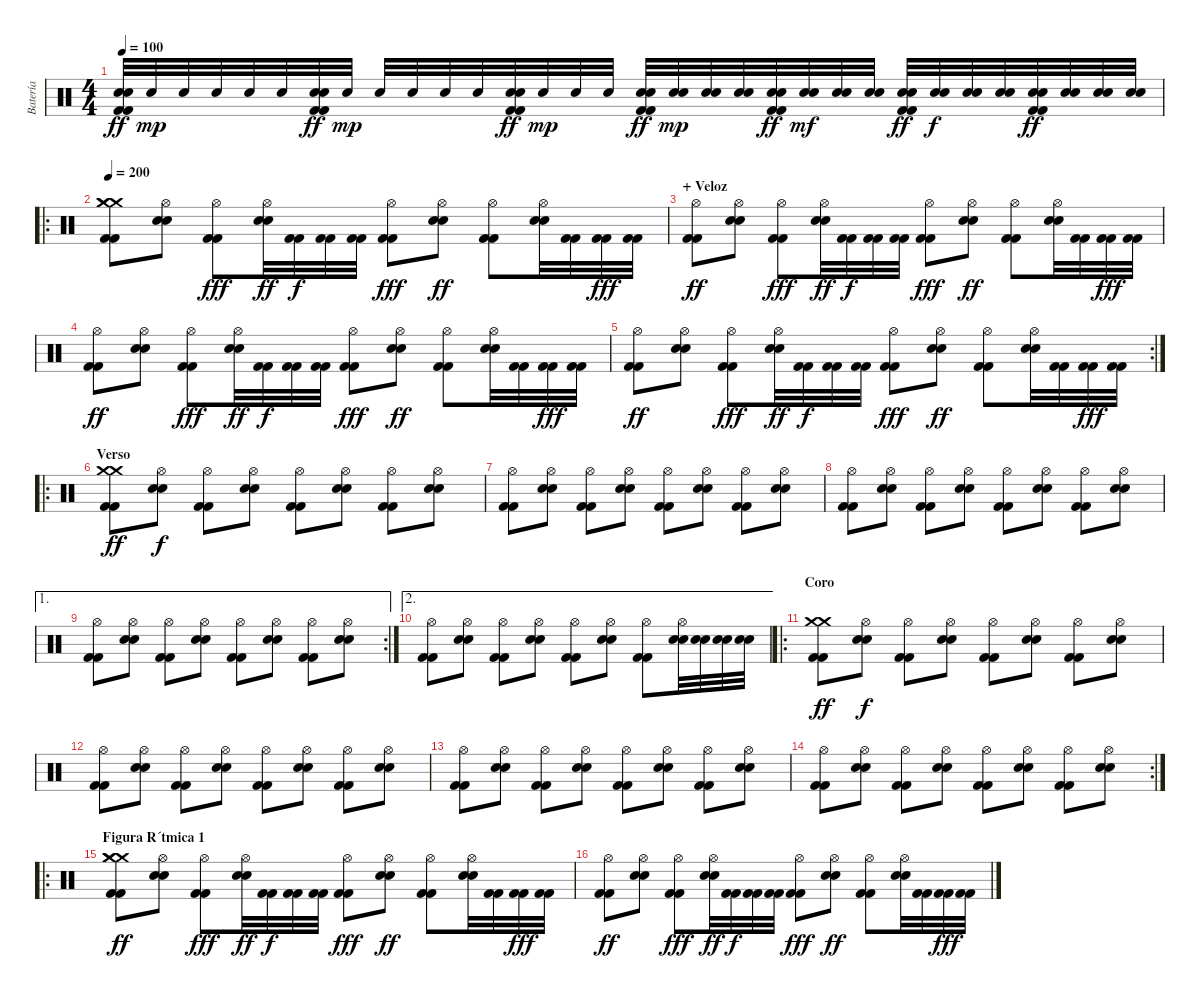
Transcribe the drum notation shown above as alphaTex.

\track ("Batería" "Batería") {instrument percussion}
\staff {score}
\articulation defaults
\ts (4 4)
\tempo 100
\clef neutral
\ks c
("Electric Snare (hit)" "Electric Snare (hit)" "Kick (hit) 2" "Kick (hit) 2").32{dy ff} "Electric Snare (hit)".32{dy mp} "Electric Snare (hit)".32 "Electric Snare (hit)".32 "Electric Snare (hit)".32 "Electric Snare (hit)".32 ("Electric Snare (hit)" "Electric Snare (hit)" "Kick (hit) 2" "Kick (hit) 2").32{dy ff} "Electric Snare (hit)".32{dy mp} "Electric Snare (hit)".32 "Electric Snare (hit)".32 "Electric Snare (hit)".32 "Electric Snare (hit)".32 ("Electric Snare (hit)" "Electric Snare (hit)" "Kick (hit) 2" "Kick (hit) 2").32{dy ff} "Electric Snare (hit)".32{dy mp} "Electric Snare (hit)".32 "Electric Snare (hit)".32 ("Electric Snare (hit)" "Electric Snare (hit)" "Kick (hit) 2" "Kick (hit) 2").32{dy ff} ("Electric Snare (hit)" "Electric Snare (hit)").32{dy mp} ("Electric Snare (hit)" "Electric Snare (hit)").32 ("Electric Snare (hit)" "Electric Snare (hit)").32 ("Electric Snare (hit)" "Electric Snare (hit)" "Kick (hit) 2" "Kick (hit) 2").32{dy ff} ("Electric Snare (hit)" "Electric Snare (hit)").32{dy mf} ("Electric Snare (hit)" "Electric Snare (hit)").32 ("Electric Snare (hit)" "Electric Snare (hit)").32 ("Electric Snare (hit)" "Electric Snare (hit)" "Kick (hit) 2" "Kick (hit) 2").32{dy ff} ("Electric Snare (hit)" "Electric Snare (hit)").32{dy f} ("Electric Snare (hit)" "Electric Snare (hit)").32 ("Electric Snare (hit)" "Electric Snare (hit)").32 ("Electric Snare (hit)" "Electric Snare (hit)" "Kick (hit) 2" "Kick (hit) 2").32{dy ff} ("Electric Snare (hit)" "Electric Snare (hit)").32 ("Electric Snare (hit)" "Electric Snare (hit)").32 ("Electric Snare (hit)" "Electric Snare (hit)").32 |
\ro
\tempo 200
("Crash medium (hit)" "Crash medium (hit)" "Crash medium (hit)" "Kick (hit) 2" "Kick (hit) 2").8 ("Hi-Hat (open)" "Electric Snare (hit)" "Electric Snare (hit)").8 ("Hi-Hat (open)" "Kick (hit) 2" "Kick (hit) 2").8{dy fff} ("Hi-Hat (open)" "Electric Snare (hit)" "Electric Snare (hit)").32{dy ff} ("Kick (hit) 2" "Kick (hit) 2").32{dy f} ("Kick (hit) 2" "Kick (hit) 2").32 ("Kick (hit) 2" "Kick (hit) 2").32 ("Hi-Hat (open)" "Kick (hit) 2" "Kick (hit) 2").8{dy fff} ("Hi-Hat (open)" "Electric Snare (hit)" "Electric Snare (hit)").8{dy ff} ("Hi-Hat (open)" "Kick (hit) 2" "Kick (hit) 2").8 ("Hi-Hat (open)" "Electric Snare (hit)" "Electric Snare (hit)").32 ("Kick (hit) 2" "Kick (hit) 2").32 ("Kick (hit) 2" "Kick (hit) 2").32{dy fff} ("Kick (hit) 2" "Kick (hit) 2").32 |
\section ("" "+ Veloz")
("Hi-Hat (open)" "Kick (hit) 2" "Kick (hit) 2").8{dy ff} ("Hi-Hat (open)" "Electric Snare (hit)" "Electric Snare (hit)").8 ("Hi-Hat (open)" "Kick (hit) 2" "Kick (hit) 2").8{dy fff} ("Hi-Hat (open)" "Electric Snare (hit)" "Electric Snare (hit)").32{dy ff} ("Kick (hit) 2" "Kick (hit) 2").32{dy f} ("Kick (hit) 2" "Kick (hit) 2").32 ("Kick (hit) 2" "Kick (hit) 2").32 ("Hi-Hat (open)" "Kick (hit) 2" "Kick (hit) 2").8{dy fff} ("Hi-Hat (open)" "Electric Snare (hit)" "Electric Snare (hit)").8{dy ff} ("Hi-Hat (open)" "Kick (hit) 2" "Kick (hit) 2").8 ("Hi-Hat (open)" "Electric Snare (hit)" "Electric Snare (hit)").32 ("Kick (hit) 2" "Kick (hit) 2").32 ("Kick (hit) 2" "Kick (hit) 2").32{dy fff} ("Kick (hit) 2" "Kick (hit) 2").32 |
("Hi-Hat (open)" "Kick (hit) 2" "Kick (hit) 2").8{dy ff} ("Hi-Hat (open)" "Electric Snare (hit)" "Electric Snare (hit)").8 ("Hi-Hat (open)" "Kick (hit) 2" "Kick (hit) 2").8{dy fff} ("Hi-Hat (open)" "Electric Snare (hit)" "Electric Snare (hit)").32{dy ff} ("Kick (hit) 2" "Kick (hit) 2").32{dy f} ("Kick (hit) 2" "Kick (hit) 2").32 ("Kick (hit) 2" "Kick (hit) 2").32 ("Hi-Hat (open)" "Kick (hit) 2" "Kick (hit) 2").8{dy fff} ("Hi-Hat (open)" "Electric Snare (hit)" "Electric Snare (hit)").8{dy ff} ("Hi-Hat (open)" "Kick (hit) 2" "Kick (hit) 2").8 ("Hi-Hat (open)" "Electric Snare (hit)" "Electric Snare (hit)").32 ("Kick (hit) 2" "Kick (hit) 2").32 ("Kick (hit) 2" "Kick (hit) 2").32{dy fff} ("Kick (hit) 2" "Kick (hit) 2").32 |
\rc 2
("Hi-Hat (open)" "Kick (hit) 2" "Kick (hit) 2").8{dy ff} ("Hi-Hat (open)" "Electric Snare (hit)" "Electric Snare (hit)").8 ("Hi-Hat (open)" "Kick (hit) 2" "Kick (hit) 2").8{dy fff} ("Hi-Hat (open)" "Electric Snare (hit)" "Electric Snare (hit)").32{dy ff} ("Kick (hit) 2" "Kick (hit) 2").32{dy f} ("Kick (hit) 2" "Kick (hit) 2").32 ("Kick (hit) 2" "Kick (hit) 2").32 ("Hi-Hat (open)" "Kick (hit) 2" "Kick (hit) 2").8{dy fff} ("Hi-Hat (open)" "Electric Snare (hit)" "Electric Snare (hit)").8{dy ff} ("Hi-Hat (open)" "Kick (hit) 2" "Kick (hit) 2").8 ("Hi-Hat (open)" "Electric Snare (hit)" "Electric Snare (hit)").32 ("Kick (hit) 2" "Kick (hit) 2").32 ("Kick (hit) 2" "Kick (hit) 2").32{dy fff} ("Kick (hit) 2" "Kick (hit) 2").32 |
\ro
\section ("" "Verso")
("Crash medium (hit)" "Crash medium (hit)" "Kick (hit) 2" "Kick (hit) 2").8{dy ff} ("Hi-Hat (open)" "Electric Snare (hit)" "Electric Snare (hit)").8{dy f} ("Hi-Hat (open)" "Kick (hit) 2" "Kick (hit) 2").8 ("Hi-Hat (open)" "Electric Snare (hit)" "Electric Snare (hit)").8 ("Hi-Hat (open)" "Kick (hit) 2" "Kick (hit) 2").8 ("Hi-Hat (open)" "Electric Snare (hit)" "Electric Snare (hit)").8 ("Hi-Hat (open)" "Kick (hit) 2" "Kick (hit) 2").8 ("Hi-Hat (open)" "Electric Snare (hit)" "Electric Snare (hit)").8 |
("Hi-Hat (open)" "Kick (hit) 2" "Kick (hit) 2").8 ("Hi-Hat (open)" "Electric Snare (hit)" "Electric Snare (hit)").8 ("Hi-Hat (open)" "Kick (hit) 2" "Kick (hit) 2").8 ("Hi-Hat (open)" "Electric Snare (hit)" "Electric Snare (hit)").8 ("Hi-Hat (open)" "Kick (hit) 2" "Kick (hit) 2").8 ("Hi-Hat (open)" "Electric Snare (hit)" "Electric Snare (hit)").8 ("Hi-Hat (open)" "Kick (hit) 2" "Kick (hit) 2").8 ("Hi-Hat (open)" "Electric Snare (hit)" "Electric Snare (hit)").8 |
("Hi-Hat (open)" "Kick (hit) 2" "Kick (hit) 2").8 ("Hi-Hat (open)" "Electric Snare (hit)" "Electric Snare (hit)").8 ("Hi-Hat (open)" "Kick (hit) 2" "Kick (hit) 2").8 ("Hi-Hat (open)" "Electric Snare (hit)" "Electric Snare (hit)").8 ("Hi-Hat (open)" "Kick (hit) 2" "Kick (hit) 2").8 ("Hi-Hat (open)" "Electric Snare (hit)" "Electric Snare (hit)").8 ("Hi-Hat (open)" "Kick (hit) 2" "Kick (hit) 2").8 ("Hi-Hat (open)" "Electric Snare (hit)" "Electric Snare (hit)").8 |
\ae 1
\rc 2
("Hi-Hat (open)" "Kick (hit) 2" "Kick (hit) 2").8 ("Hi-Hat (open)" "Electric Snare (hit)" "Electric Snare (hit)").8 ("Hi-Hat (open)" "Kick (hit) 2" "Kick (hit) 2").8 ("Hi-Hat (open)" "Electric Snare (hit)" "Electric Snare (hit)").8 ("Hi-Hat (open)" "Kick (hit) 2" "Kick (hit) 2").8 ("Hi-Hat (open)" "Electric Snare (hit)" "Electric Snare (hit)").8 ("Hi-Hat (open)" "Kick (hit) 2" "Kick (hit) 2").8 ("Hi-Hat (open)" "Electric Snare (hit)" "Electric Snare (hit)").8 |
\ae 2
("Hi-Hat (open)" "Kick (hit) 2" "Kick (hit) 2").8 ("Hi-Hat (open)" "Electric Snare (hit)" "Electric Snare (hit)").8 ("Hi-Hat (open)" "Kick (hit) 2" "Kick (hit) 2").8 ("Hi-Hat (open)" "Electric Snare (hit)" "Electric Snare (hit)").8 ("Hi-Hat (open)" "Kick (hit) 2" "Kick (hit) 2").8 ("Hi-Hat (open)" "Electric Snare (hit)" "Electric Snare (hit)").8 ("Hi-Hat (open)" "Kick (hit) 2" "Kick (hit) 2").8 ("Hi-Hat (open)" "Electric Snare (hit)" "Electric Snare (hit)").32 ("Electric Snare (hit)" "Electric Snare (hit)").32 ("Electric Snare (hit)" "Electric Snare (hit)").32 ("Electric Snare (hit)" "Electric Snare (hit)").32 |
\ro
\section ("" "Coro")
("Crash medium (hit)" "Crash medium (hit)" "Kick (hit) 2" "Kick (hit) 2").8{dy ff} ("Hi-Hat (open)" "Electric Snare (hit)" "Electric Snare (hit)").8{dy f} ("Hi-Hat (open)" "Kick (hit) 2" "Kick (hit) 2").8 ("Hi-Hat (open)" "Electric Snare (hit)" "Electric Snare (hit)").8 ("Hi-Hat (open)" "Kick (hit) 2" "Kick (hit) 2").8 ("Hi-Hat (open)" "Electric Snare (hit)" "Electric Snare (hit)").8 ("Hi-Hat (open)" "Kick (hit) 2" "Kick (hit) 2").8 ("Hi-Hat (open)" "Electric Snare (hit)" "Electric Snare (hit)").8 |
("Hi-Hat (open)" "Kick (hit) 2" "Kick (hit) 2").8 ("Hi-Hat (open)" "Electric Snare (hit)" "Electric Snare (hit)").8 ("Hi-Hat (open)" "Kick (hit) 2" "Kick (hit) 2").8 ("Hi-Hat (open)" "Electric Snare (hit)" "Electric Snare (hit)").8 ("Hi-Hat (open)" "Kick (hit) 2" "Kick (hit) 2").8 ("Hi-Hat (open)" "Electric Snare (hit)" "Electric Snare (hit)").8 ("Hi-Hat (open)" "Kick (hit) 2" "Kick (hit) 2").8 ("Hi-Hat (open)" "Electric Snare (hit)" "Electric Snare (hit)").8 |
("Hi-Hat (open)" "Kick (hit) 2" "Kick (hit) 2").8 ("Hi-Hat (open)" "Electric Snare (hit)" "Electric Snare (hit)").8 ("Hi-Hat (open)" "Kick (hit) 2" "Kick (hit) 2").8 ("Hi-Hat (open)" "Electric Snare (hit)" "Electric Snare (hit)").8 ("Hi-Hat (open)" "Kick (hit) 2" "Kick (hit) 2").8 ("Hi-Hat (open)" "Electric Snare (hit)" "Electric Snare (hit)").8 ("Hi-Hat (open)" "Kick (hit) 2" "Kick (hit) 2").8 ("Hi-Hat (open)" "Electric Snare (hit)" "Electric Snare (hit)").8 |
\rc 2
("Hi-Hat (open)" "Kick (hit) 2" "Kick (hit) 2").8 ("Hi-Hat (open)" "Electric Snare (hit)" "Electric Snare (hit)").8 ("Hi-Hat (open)" "Kick (hit) 2" "Kick (hit) 2").8 ("Hi-Hat (open)" "Electric Snare (hit)" "Electric Snare (hit)").8 ("Hi-Hat (open)" "Kick (hit) 2" "Kick (hit) 2").8 ("Hi-Hat (open)" "Electric Snare (hit)" "Electric Snare (hit)").8 ("Hi-Hat (open)" "Kick (hit) 2" "Kick (hit) 2").8 ("Hi-Hat (open)" "Electric Snare (hit)" "Electric Snare (hit)").8 |
\ro
\section ("" "Figura R´tmica 1")
("Crash medium (hit)" "Crash medium (hit)" "Crash medium (hit)" "Kick (hit) 2" "Kick (hit) 2").8{dy ff} ("Hi-Hat (open)" "Electric Snare (hit)" "Electric Snare (hit)").8 ("Hi-Hat (open)" "Kick (hit) 2" "Kick (hit) 2").8{dy fff} ("Hi-Hat (open)" "Electric Snare (hit)" "Electric Snare (hit)").32{dy ff} ("Kick (hit) 2" "Kick (hit) 2").32{dy f} ("Kick (hit) 2" "Kick (hit) 2").32 ("Kick (hit) 2" "Kick (hit) 2").32 ("Hi-Hat (open)" "Kick (hit) 2" "Kick (hit) 2").8{dy fff} ("Hi-Hat (open)" "Electric Snare (hit)" "Electric Snare (hit)").8{dy ff} ("Hi-Hat (open)" "Kick (hit) 2" "Kick (hit) 2").8 ("Hi-Hat (open)" "Electric Snare (hit)" "Electric Snare (hit)").32 ("Kick (hit) 2" "Kick (hit) 2").32 ("Kick (hit) 2" "Kick (hit) 2").32{dy fff} ("Kick (hit) 2" "Kick (hit) 2").32 |
("Hi-Hat (open)" "Kick (hit) 2" "Kick (hit) 2").8{dy ff} ("Hi-Hat (open)" "Electric Snare (hit)" "Electric Snare (hit)").8 ("Hi-Hat (open)" "Kick (hit) 2" "Kick (hit) 2").8{dy fff} ("Hi-Hat (open)" "Electric Snare (hit)" "Electric Snare (hit)").32{dy ff} ("Kick (hit) 2" "Kick (hit) 2").32{dy f} ("Kick (hit) 2" "Kick (hit) 2").32 ("Kick (hit) 2" "Kick (hit) 2").32 ("Hi-Hat (open)" "Kick (hit) 2" "Kick (hit) 2").8{dy fff} ("Hi-Hat (open)" "Electric Snare (hit)" "Electric Snare (hit)").8{dy ff} ("Hi-Hat (open)" "Kick (hit) 2" "Kick (hit) 2").8 ("Hi-Hat (open)" "Electric Snare (hit)" "Electric Snare (hit)").32 ("Kick (hit) 2" "Kick (hit) 2").32 ("Kick (hit) 2" "Kick (hit) 2").32{dy fff} ("Kick (hit) 2" "Kick (hit) 2").32
